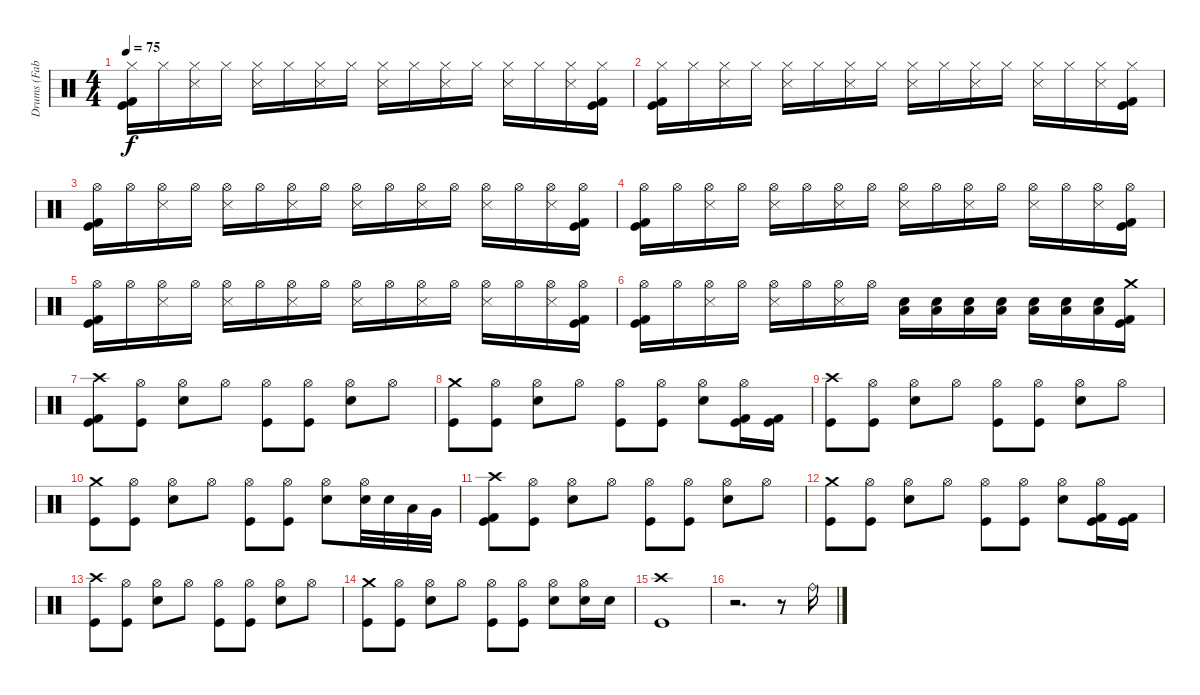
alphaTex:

\track ("Drums (Fabien)" "Drums (Fab") {instrument percussion}
\staff {score}
\articulation defaults
\ts (4 4)
\tempo 75
\clef neutral
\ks c
("Hi-Hat (closed)" "Kick (hit) 2" "Kick (hit)").16{dy f} "Hi-Hat (closed)".16 ("Hi-Hat (closed)" "Snare (side stick) 3").16 "Hi-Hat (closed)".16 ("Hi-Hat (closed)" "Snare (side stick) 3").16 "Hi-Hat (closed)".16 ("Hi-Hat (closed)" "Snare (side stick) 3").16 "Hi-Hat (closed)".16 ("Hi-Hat (closed)" "Snare (side stick) 3").16 "Hi-Hat (closed)".16 ("Hi-Hat (closed)" "Snare (side stick) 3").16 "Hi-Hat (closed)".16 ("Hi-Hat (closed)" "Snare (side stick) 3").16 "Hi-Hat (closed)".16 ("Hi-Hat (closed)" "Snare (side stick) 3").16 ("Hi-Hat (closed)" "Kick (hit) 2" "Kick (hit)").16 |
("Hi-Hat (closed)" "Kick (hit) 2" "Kick (hit)").16 "Hi-Hat (closed)".16 ("Hi-Hat (closed)" "Snare (side stick) 3").16 "Hi-Hat (closed)".16 ("Hi-Hat (closed)" "Snare (side stick) 3").16 "Hi-Hat (closed)".16 ("Hi-Hat (closed)" "Snare (side stick) 3").16 "Hi-Hat (closed)".16 ("Hi-Hat (closed)" "Snare (side stick) 3").16 "Hi-Hat (closed)".16 ("Hi-Hat (closed)" "Snare (side stick) 3").16 "Hi-Hat (closed)".16 ("Hi-Hat (closed)" "Snare (side stick) 3").16 "Hi-Hat (closed)".16 ("Hi-Hat (closed)" "Snare (side stick) 3").16 ("Hi-Hat (closed)" "Kick (hit) 2" "Kick (hit)").16 |
("Hi-Hat (open)" "Kick (hit) 2" "Kick (hit)").16 "Hi-Hat (open)".16 ("Hi-Hat (open)" "Snare (side stick) 3").16 "Hi-Hat (open)".16 ("Hi-Hat (open)" "Snare (side stick) 3").16 "Hi-Hat (open)".16 ("Hi-Hat (open)" "Snare (side stick) 3").16 "Hi-Hat (open)".16 ("Hi-Hat (open)" "Snare (side stick) 3").16 "Hi-Hat (open)".16 ("Hi-Hat (open)" "Snare (side stick) 3").16 "Hi-Hat (open)".16 ("Hi-Hat (open)" "Snare (side stick) 3").16 "Hi-Hat (open)".16 ("Hi-Hat (open)" "Snare (side stick) 3").16 ("Hi-Hat (open)" "Kick (hit) 2" "Kick (hit)").16 |
("Hi-Hat (open)" "Kick (hit) 2" "Kick (hit)").16 "Hi-Hat (open)".16 ("Hi-Hat (open)" "Snare (side stick) 3").16 "Hi-Hat (open)".16 ("Hi-Hat (open)" "Snare (side stick) 3").16 "Hi-Hat (open)".16 ("Hi-Hat (open)" "Snare (side stick) 3").16 "Hi-Hat (open)".16 ("Hi-Hat (open)" "Snare (side stick) 3").16 "Hi-Hat (open)".16 ("Hi-Hat (open)" "Snare (side stick) 3").16 "Hi-Hat (open)".16 ("Hi-Hat (open)" "Snare (side stick) 3").16 "Hi-Hat (open)".16 ("Hi-Hat (open)" "Snare (side stick) 3").16 ("Hi-Hat (open)" "Kick (hit) 2" "Kick (hit)").16 |
("Hi-Hat (open)" "Kick (hit) 2" "Kick (hit)").16 "Hi-Hat (open)".16 ("Hi-Hat (open)" "Snare (side stick) 3").16 "Hi-Hat (open)".16 ("Hi-Hat (open)" "Snare (side stick) 3").16 "Hi-Hat (open)".16 ("Hi-Hat (open)" "Snare (side stick) 3").16 "Hi-Hat (open)".16 ("Hi-Hat (open)" "Snare (side stick) 3").16 "Hi-Hat (open)".16 ("Hi-Hat (open)" "Snare (side stick) 3").16 "Hi-Hat (open)".16 ("Hi-Hat (open)" "Snare (side stick) 3").16 "Hi-Hat (open)".16 ("Hi-Hat (open)" "Snare (side stick) 3").16 ("Hi-Hat (open)" "Kick (hit) 2" "Kick (hit)").16 |
("Hi-Hat (open)" "Kick (hit) 2" "Kick (hit)").16 "Hi-Hat (open)".16 ("Hi-Hat (open)" "Snare (side stick) 3").16 "Hi-Hat (open)".16 ("Hi-Hat (open)" "Snare (side stick) 3").16 "Hi-Hat (open)".16 ("Hi-Hat (open)" "Snare (side stick) 3").16 "Hi-Hat (open)".16 ("Snare (hit) 2" "Low Tom (hit)").16 ("Snare (hit) 2" "Low Tom (hit)").16 ("Snare (hit) 2" "Low Tom (hit)").16 ("Snare (hit) 2" "Low Tom (hit)").16 ("Snare (hit) 2" "Low Tom (hit)").16 ("Snare (hit) 2" "Low Tom (hit)").16 ("Snare (hit) 2" "Low Tom (hit)").16 ("Crash medium (hit)" "Kick (hit) 2" "Kick (hit)").16 |
("Crash high (hit)" "Kick (hit) 2" "Kick (hit)").8 ("Hi-Hat (open)" "Kick (hit)").8 ("Hi-Hat (open)" "Snare (hit) 2").8 "Hi-Hat (open)".8 ("Hi-Hat (open)" "Kick (hit)").8 ("Hi-Hat (open)" "Kick (hit)").8 ("Hi-Hat (open)" "Snare (hit) 2").8 "Hi-Hat (open)".8 |
("Crash medium (hit)" "Kick (hit)").8 ("Hi-Hat (open)" "Kick (hit)").8 ("Hi-Hat (open)" "Snare (hit) 2").8 "Hi-Hat (open)".8 ("Hi-Hat (open)" "Kick (hit)").8 ("Hi-Hat (open)" "Kick (hit)").8 ("Hi-Hat (open)" "Snare (hit) 2").8 ("Hi-Hat (open)" "Kick (hit) 2" "Kick (hit)").16 ("Kick (hit) 2" "Kick (hit)").16 |
("Crash high (hit)" "Kick (hit)").8 ("Hi-Hat (open)" "Kick (hit)").8 ("Hi-Hat (open)" "Snare (hit) 2").8 "Hi-Hat (open)".8 ("Hi-Hat (open)" "Kick (hit)").8 ("Hi-Hat (open)" "Kick (hit)").8 ("Hi-Hat (open)" "Snare (hit) 2").8 "Hi-Hat (open)".8 |
("Crash medium (hit)" "Kick (hit)").8 ("Hi-Hat (open)" "Kick (hit)").8 ("Hi-Hat (open)" "Snare (hit) 2").8 "Hi-Hat (open)".8 ("Hi-Hat (open)" "Kick (hit)").8 ("Hi-Hat (open)" "Kick (hit)").8 ("Hi-Hat (open)" "Snare (hit) 2").8 ("Hi-Hat (open)" "Snare (hit) 2").32 "Snare (hit) 2".32 "Low Tom (hit)".32 "Very Low Tom (hit)".32 |
("Crash high (hit)" "Kick (hit) 2" "Kick (hit)").8 ("Hi-Hat (open)" "Kick (hit)").8 ("Hi-Hat (open)" "Snare (hit) 2").8 "Hi-Hat (open)".8 ("Hi-Hat (open)" "Kick (hit)").8 ("Hi-Hat (open)" "Kick (hit)").8 ("Hi-Hat (open)" "Snare (hit) 2").8 "Hi-Hat (open)".8 |
("Crash medium (hit)" "Kick (hit)").8 ("Hi-Hat (open)" "Kick (hit)").8 ("Hi-Hat (open)" "Snare (hit) 2").8 "Hi-Hat (open)".8 ("Hi-Hat (open)" "Kick (hit)").8 ("Hi-Hat (open)" "Kick (hit)").8 ("Hi-Hat (open)" "Snare (hit) 2").8 ("Hi-Hat (open)" "Kick (hit) 2" "Kick (hit)").16 ("Kick (hit) 2" "Kick (hit)").16 |
("Crash high (hit)" "Kick (hit)").8 ("Hi-Hat (open)" "Kick (hit)").8 ("Hi-Hat (open)" "Snare (hit) 2").8 "Hi-Hat (open)".8 ("Hi-Hat (open)" "Kick (hit)").8 ("Hi-Hat (open)" "Kick (hit)").8 ("Hi-Hat (open)" "Snare (hit) 2").8 "Hi-Hat (open)".8 |
("Crash medium (hit)" "Kick (hit)").8 ("Hi-Hat (open)" "Kick (hit)").8 ("Hi-Hat (open)" "Snare (hit) 2").8 "Hi-Hat (open)".8 ("Hi-Hat (open)" "Kick (hit)").8 ("Hi-Hat (open)" "Kick (hit)").8 ("Hi-Hat (open)" "Snare (hit) 2").8 ("Hi-Hat (open)" "Snare (hit) 2").16 "Snare (hit) 2".16 |
("Crash high (hit)" "Kick (hit)").1 |
r.2{d} r.8 "Ride (bell)".16
